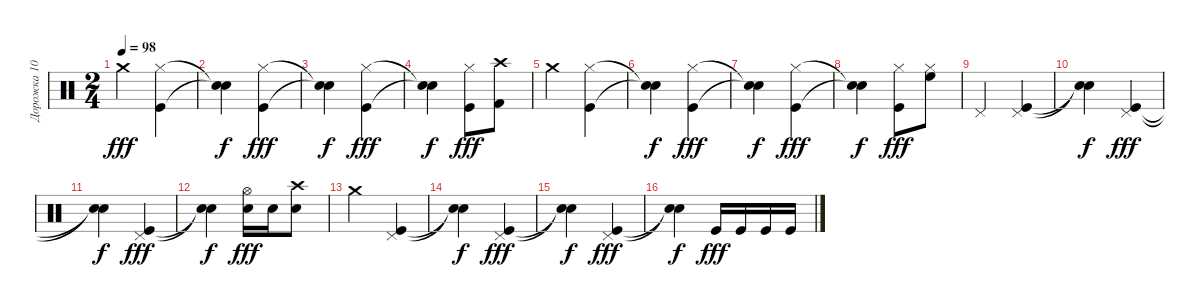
\track ("Дорожка 10" "Дорожка 10") {instrument percussion}
\staff {score}
\articulation defaults
\ts (2 4)
\tempo 98
\clef neutral
\ks c "Crash medium (hit)".4{dy fff}
("Kick (hit)" "Hi-Hat (closed)").4 |
("Snare (hit)"{t} "Snare (hit)"{t}).4{dy f} ("Kick (hit)" "Hi-Hat (closed)").4{dy fff} |
("Snare (hit)"{t} "Snare (hit)"{t}).4{dy f} ("Kick (hit)" "Hi-Hat (closed)").4{dy fff} |
("Snare (hit)"{t} "Snare (hit)"{t}).4{dy f} ("Kick (hit)" "Hi-Hat (closed)").8{dy fff} ("Kick (hit) 2" "Crash high (hit)").8 |
"Crash medium (hit)".4 ("Kick (hit)" "Hi-Hat (closed)").4 |
("Snare (hit)"{t} "Snare (hit)"{t}).4{dy f} ("Kick (hit)" "Hi-Hat (closed)").4{dy fff} |
("Snare (hit)"{t} "Snare (hit)"{t}).4{dy f} ("Kick (hit)" "Hi-Hat (closed)").4{dy fff} |
("Snare (hit)"{t} "Snare (hit)"{t}).4{dy f} ("Kick (hit)" "Hi-Hat (closed)").8{dy fff} ("High Floor Tom (hit)" "Hi-Hat (closed)").8 |
"Pedal Hi-Hat (hit)".4 ("Kick (hit)" "Pedal Hi-Hat (hit)").4 |
("Snare (hit)"{t} "Snare (hit)"{t}).4{dy f} ("Kick (hit)" "Pedal Hi-Hat (hit)").4{dy fff} |
("Snare (hit)"{t} "Snare (hit)"{t}).4{dy f} ("Kick (hit)" "Pedal Hi-Hat (hit)").4{dy fff} |
("Snare (hit)"{t} "Snare (hit)"{t}).4{dy f} ("Snare (hit) 2" "Hi-Hat (open)").16{dy fff} "Snare (hit) 2".16 ("Snare (hit) 2" "Crash high (hit)").8 |
"Crash medium (hit)".4 ("Kick (hit)" "Pedal Hi-Hat (hit)").4 |
("Snare (hit)"{t} "Snare (hit)"{t}).4{dy f} ("Kick (hit)" "Pedal Hi-Hat (hit)").4{dy fff} |
("Snare (hit)"{t} "Snare (hit)"{t}).4{dy f} ("Kick (hit)" "Pedal Hi-Hat (hit)").4{dy fff} |
("Snare (hit)"{t} "Snare (hit)"{t}).4{dy f} "Kick (hit)".16{dy fff} "Kick (hit)".16 "Kick (hit)".16 "Kick (hit)".16
